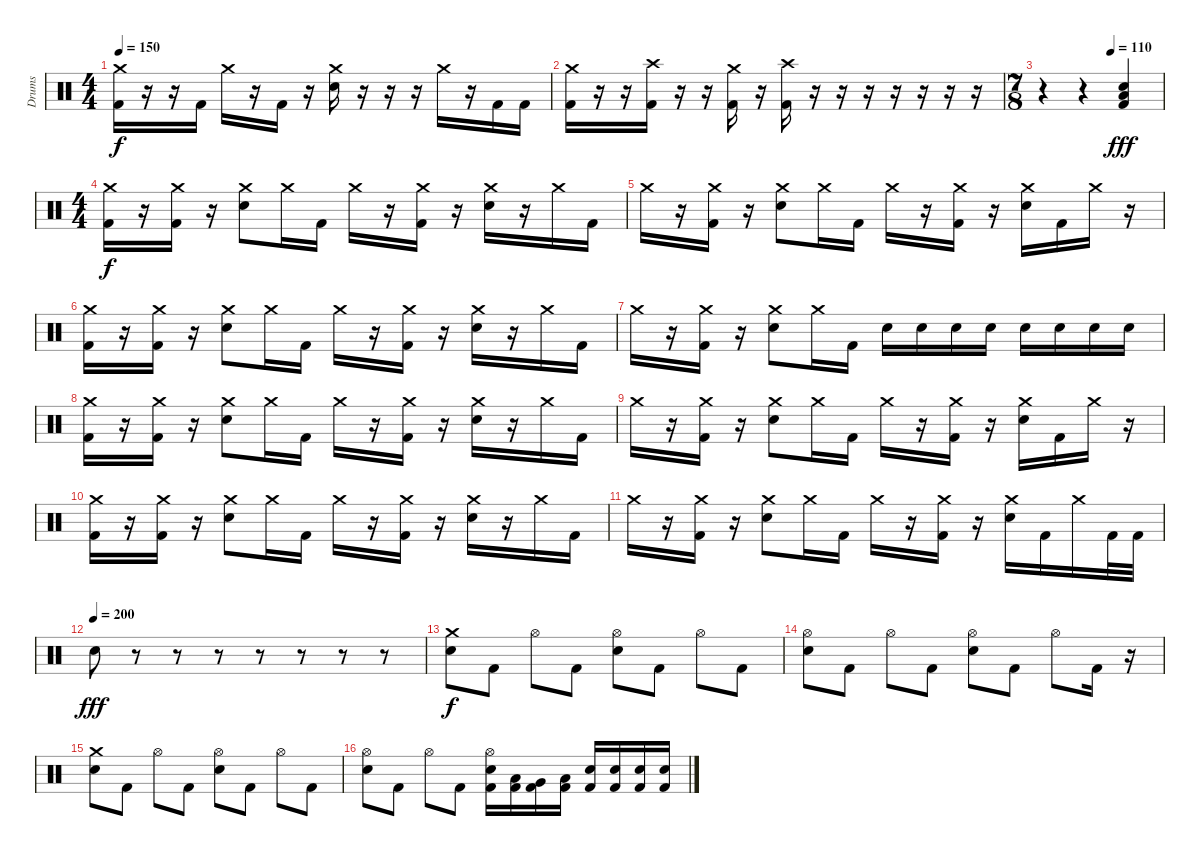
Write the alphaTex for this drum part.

\track ("Drums" "Drums") {instrument percussion}
\staff {score}
\articulation defaults
\ts (4 4)
\tempo 150
\clef neutral
\ks c
("Crash medium (hit)" "Kick (hit) 2").16{dy f} r.16 r.16 "Kick (hit) 2".16 "Crash medium (hit)".16 r.16 "Kick (hit) 2".16 r.16 ("Crash medium (hit)" "Electric Snare (hit)").16 r.16 r.16 r.16 "Crash medium (hit)".16 r.16 "Kick (hit) 2".16 "Kick (hit) 2".16 |
("Crash medium (hit)" "Kick (hit) 2").16 r.16 r.16 ("Crash high (hit)" "Kick (hit) 2").16 r.16 r.16 ("Crash medium (hit)" "Kick (hit) 2").16 r.16 ("Crash high (hit)" "Kick (hit) 2").16 r.16 r.16 r.16 r.16 r.16 r.16 r.16 |
\ts (7 8)
\tempo (110 0.5714285714285714)
r.4 r.4 ("Low Floor Tom (hit)" "Electric Snare (hit)" "Kick (hit) 2").4{dy fff} |
\ts (4 4)
("Crash medium (hit)" "Kick (hit) 2").16{dy f} r.16 ("Crash medium (hit)" "Kick (hit) 2").16 r.16 ("Crash medium (hit)" "Electric Snare (hit)").8 "Crash medium (hit)".16 "Kick (hit) 2".16 "Crash medium (hit)".16 r.16 ("Crash medium (hit)" "Kick (hit) 2").16 r.16 ("Crash medium (hit)" "Electric Snare (hit)").16 r.16 "Crash medium (hit)".16 "Kick (hit) 2".16 |
"Crash medium (hit)".16 r.16 ("Crash medium (hit)" "Kick (hit) 2").16 r.16 ("Crash medium (hit)" "Electric Snare (hit)").8 "Crash medium (hit)".16 "Kick (hit) 2".16 "Crash medium (hit)".16 r.16 ("Crash medium (hit)" "Kick (hit) 2").16 r.16 ("Crash medium (hit)" "Electric Snare (hit)").16 "Kick (hit) 2".16 "Crash medium (hit)".16 r.16 |
("Crash medium (hit)" "Kick (hit) 2").16 r.16 ("Crash medium (hit)" "Kick (hit) 2").16 r.16 ("Crash medium (hit)" "Electric Snare (hit)").8 "Crash medium (hit)".16 "Kick (hit) 2".16 "Crash medium (hit)".16 r.16 ("Crash medium (hit)" "Kick (hit) 2").16 r.16 ("Crash medium (hit)" "Electric Snare (hit)").16 r.16 "Crash medium (hit)".16 "Kick (hit) 2".16 |
"Crash medium (hit)".16 r.16 ("Crash medium (hit)" "Kick (hit) 2").16 r.16 ("Crash medium (hit)" "Electric Snare (hit)").8 "Crash medium (hit)".16 "Kick (hit) 2".16 "Electric Snare (hit)".16 "Electric Snare (hit)".16 "Electric Snare (hit)".16 "Electric Snare (hit)".16 "Electric Snare (hit)".16 "Electric Snare (hit)".16 "Electric Snare (hit)".16 "Electric Snare (hit)".16 |
("Crash medium (hit)" "Kick (hit) 2").16 r.16 ("Crash medium (hit)" "Kick (hit) 2").16 r.16 ("Crash medium (hit)" "Electric Snare (hit)").8 "Crash medium (hit)".16 "Kick (hit) 2".16 "Crash medium (hit)".16 r.16 ("Crash medium (hit)" "Kick (hit) 2").16 r.16 ("Crash medium (hit)" "Electric Snare (hit)").16 r.16 "Crash medium (hit)".16 "Kick (hit) 2".16 |
"Crash medium (hit)".16 r.16 ("Crash medium (hit)" "Kick (hit) 2").16 r.16 ("Crash medium (hit)" "Electric Snare (hit)").8 "Crash medium (hit)".16 "Kick (hit) 2".16 "Crash medium (hit)".16 r.16 ("Crash medium (hit)" "Kick (hit) 2").16 r.16 ("Crash medium (hit)" "Electric Snare (hit)").16 "Kick (hit) 2".16 "Crash medium (hit)".16 r.16 |
("Crash medium (hit)" "Kick (hit) 2").16 r.16 ("Crash medium (hit)" "Kick (hit) 2").16 r.16 ("Crash medium (hit)" "Electric Snare (hit)").8 "Crash medium (hit)".16 "Kick (hit) 2".16 "Crash medium (hit)".16 r.16 ("Crash medium (hit)" "Kick (hit) 2").16 r.16 ("Crash medium (hit)" "Electric Snare (hit)").16 r.16 "Crash medium (hit)".16 "Kick (hit) 2".16 |
"Crash medium (hit)".16 r.16 ("Crash medium (hit)" "Kick (hit) 2").16 r.16 ("Crash medium (hit)" "Electric Snare (hit)").8 "Crash medium (hit)".16 "Kick (hit) 2".16 "Crash medium (hit)".16 r.16 ("Crash medium (hit)" "Kick (hit) 2").16 r.16 ("Crash medium (hit)" "Electric Snare (hit)").16 "Kick (hit) 2".16 "Crash medium (hit)".16 "Kick (hit) 2".32 "Kick (hit) 2".32 |
\tempo (200)
"Electric Snare (hit)".8{dy fff} r.8 r.8 r.8 r.8 r.8 r.8 r.8 |
("Crash medium (hit)" "Electric Snare (hit)").8{dy f} "Kick (hit) 2".8 "Hi-Hat (open)".8 "Kick (hit) 2".8 ("Hi-Hat (open)" "Electric Snare (hit)").8 "Kick (hit) 2".8 "Hi-Hat (open)".8 "Kick (hit) 2".8 |
("Hi-Hat (open)" "Electric Snare (hit)").8 "Kick (hit) 2".8 "Hi-Hat (open)".8 "Kick (hit) 2".8 ("Hi-Hat (open)" "Electric Snare (hit)").8 "Kick (hit) 2".8 "Hi-Hat (open)".8 "Kick (hit) 2".16 r.16 |
("Crash medium (hit)" "Electric Snare (hit)").8 "Kick (hit) 2".8 "Hi-Hat (open)".8 "Kick (hit) 2".8 ("Hi-Hat (open)" "Electric Snare (hit)").8 "Kick (hit) 2".8 "Hi-Hat (open)".8 "Kick (hit) 2".8 |
("Hi-Hat (open)" "Electric Snare (hit)").8 "Kick (hit) 2".8 "Hi-Hat (open)".8 "Kick (hit) 2".8 ("Hi-Hat (open)" "Electric Snare (hit)" "Kick (hit) 2").16 ("Low Tom (hit)" "Kick (hit) 2").16 ("Very Low Tom (hit)" "Kick (hit) 2").16 ("Low Floor Tom (hit)" "Kick (hit) 2").16 ("Electric Snare (hit)" "Kick (hit) 2").16 ("Electric Snare (hit)" "Kick (hit) 2").16 ("Electric Snare (hit)" "Kick (hit) 2").16 ("Electric Snare (hit)" "Kick (hit) 2").16
